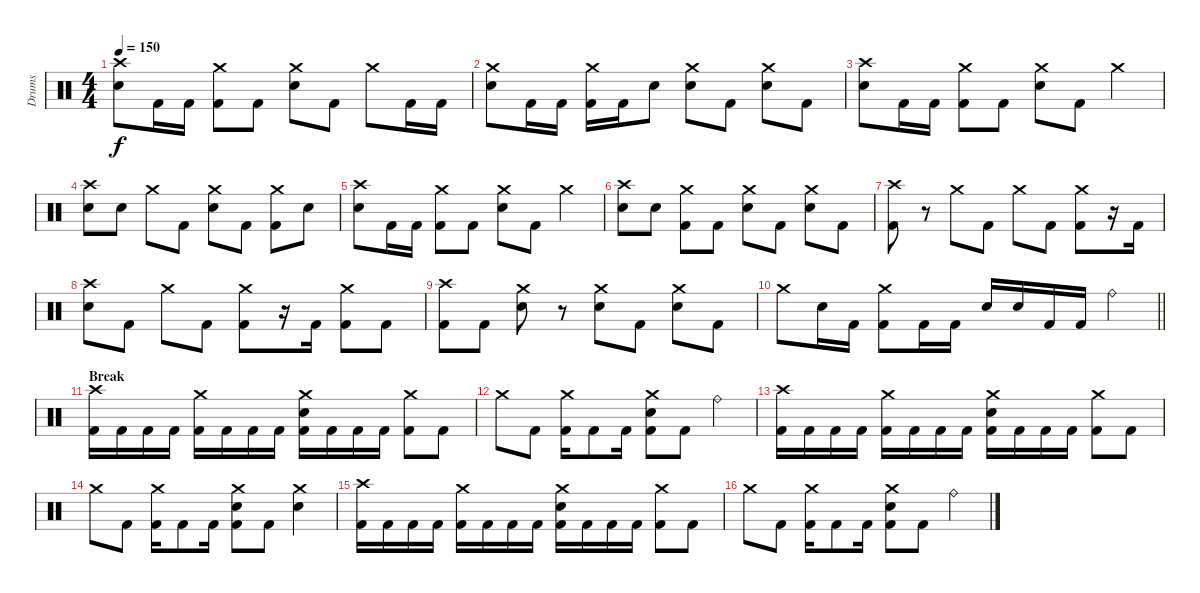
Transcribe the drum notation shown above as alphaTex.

\track ("Drums" "Drums") {instrument percussion}
\staff {score}
\articulation defaults
\ts (4 4)
\tempo 150
\clef neutral
\ks c
("Crash high (hit)" "Snare (hit) 2").8{dy f} "Kick (hit) 2".16 "Kick (hit) 2".16 ("Crash medium (hit)" "Kick (hit) 2").8 "Kick (hit) 2".8 ("Crash medium (hit)" "Snare (hit) 2").8 "Kick (hit) 2".8 "Crash medium (hit)".8 "Kick (hit) 2".16 "Kick (hit) 2".16 |
("Crash medium (hit)" "Snare (hit) 2").8 "Kick (hit) 2".16 "Kick (hit) 2".16 ("Crash medium (hit)" "Kick (hit) 2").16 "Kick (hit) 2".16 "Snare (hit) 2".8 ("Crash medium (hit)" "Snare (hit) 2").8 "Kick (hit) 2".8 ("Crash medium (hit)" "Snare (hit) 2").8 "Kick (hit) 2".8 |
("Crash high (hit)" "Snare (hit) 2").8 "Kick (hit) 2".16 "Kick (hit) 2".16 ("Crash medium (hit)" "Kick (hit) 2").8 "Kick (hit) 2".8 ("Crash medium (hit)" "Snare (hit) 2").8 "Kick (hit) 2".8 "Crash medium (hit)".4 |
("Crash high (hit)" "Snare (hit) 2").8 "Snare (hit) 2".8 "Crash medium (hit)".8 "Kick (hit) 2".8 ("Crash medium (hit)" "Snare (hit) 2").8 "Kick (hit) 2".8 ("Crash medium (hit)" "Kick (hit) 2").8 "Snare (hit) 2".8 |
("Crash high (hit)" "Snare (hit) 2").8 "Kick (hit) 2".16 "Kick (hit) 2".16 ("Crash medium (hit)" "Kick (hit) 2").8 "Kick (hit) 2".8 ("Crash medium (hit)" "Snare (hit) 2").8 "Kick (hit) 2".8 "Crash medium (hit)".4 |
("Crash high (hit)" "Snare (hit) 2").8 "Snare (hit) 2".8 ("Crash medium (hit)" "Kick (hit) 2").8 "Kick (hit) 2".8 ("Crash medium (hit)" "Snare (hit) 2").8 "Kick (hit) 2".8 ("Crash medium (hit)" "Snare (hit) 2").8 "Kick (hit) 2".8 |
("Crash high (hit)" "Kick (hit) 2").8 r.8 "Crash medium (hit)".8 "Kick (hit) 2".8 "Crash medium (hit)".8 "Kick (hit) 2".8 ("Crash medium (hit)" "Kick (hit) 2").8 r.16 "Kick (hit) 2".16 |
("Crash high (hit)" "Snare (hit) 2").8 "Kick (hit) 2".8 "Crash medium (hit)".8 "Kick (hit) 2".8 ("Crash medium (hit)" "Kick (hit) 2").8 r.16 "Kick (hit) 2".16 ("Crash medium (hit)" "Kick (hit) 2").8 "Kick (hit) 2".8 |
("Crash high (hit)" "Kick (hit) 2").8 "Kick (hit) 2".8 ("Crash medium (hit)" "Snare (hit) 2").8 r.8 ("Crash medium (hit)" "Snare (hit) 2").8 "Kick (hit) 2".8 ("Crash medium (hit)" "Snare (hit) 2").8 "Kick (hit) 2".8 |
\barLineRight lightlight "Crash medium (hit)".8 "Snare (hit) 2".16 "Kick (hit) 2".16
("Crash medium (hit)" "Kick (hit) 2").8 "Kick (hit) 2".16 "Kick (hit) 2".16 "Snare (hit) 2".16 "Snare (hit) 2".16 "Kick (hit) 2".16 "Kick (hit) 2".16 "Ride (bell)".4 |
\section ("" "Break")
("Crash high (hit)" "Kick (hit) 2").16 "Kick (hit) 2".16 "Kick (hit) 2".16 "Kick (hit) 2".16 ("Crash medium (hit)" "Kick (hit) 2").16 "Kick (hit) 2".16 "Kick (hit) 2".16 "Kick (hit) 2".16 ("Crash medium (hit)" "Snare (hit) 2" "Kick (hit) 2").16 "Kick (hit) 2".16 "Kick (hit) 2".16 "Kick (hit) 2".16 ("Crash medium (hit)" "Kick (hit) 2").8 "Kick (hit) 2".8 |
"Crash medium (hit)".8 "Kick (hit) 2".8 ("Crash medium (hit)" "Kick (hit) 2").16 "Kick (hit) 2".8 "Kick (hit) 2".16 ("Crash medium (hit)" "Snare (hit) 2" "Kick (hit) 2").8 "Kick (hit) 2".8 "Ride (bell)".4 |
("Crash high (hit)" "Kick (hit) 2").16 "Kick (hit) 2".16 "Kick (hit) 2".16 "Kick (hit) 2".16 ("Crash medium (hit)" "Kick (hit) 2").16 "Kick (hit) 2".16 "Kick (hit) 2".16 "Kick (hit) 2".16 ("Crash medium (hit)" "Snare (hit) 2" "Kick (hit) 2").16 "Kick (hit) 2".16 "Kick (hit) 2".16 "Kick (hit) 2".16 ("Crash medium (hit)" "Kick (hit) 2").8 "Kick (hit) 2".8 |
"Crash medium (hit)".8 "Kick (hit) 2".8 ("Crash medium (hit)" "Kick (hit) 2").16 "Kick (hit) 2".8 "Kick (hit) 2".16 ("Crash medium (hit)" "Snare (hit) 2" "Kick (hit) 2").8 "Kick (hit) 2".8 ("Crash medium (hit)" "Snare (hit) 2").4 |
("Crash high (hit)" "Kick (hit) 2").16 "Kick (hit) 2".16 "Kick (hit) 2".16 "Kick (hit) 2".16 ("Crash medium (hit)" "Kick (hit) 2").16 "Kick (hit) 2".16 "Kick (hit) 2".16 "Kick (hit) 2".16 ("Crash medium (hit)" "Snare (hit) 2" "Kick (hit) 2").16 "Kick (hit) 2".16 "Kick (hit) 2".16 "Kick (hit) 2".16 ("Crash medium (hit)" "Kick (hit) 2").8 "Kick (hit) 2".8 |
"Crash medium (hit)".8 "Kick (hit) 2".8 ("Crash medium (hit)" "Kick (hit) 2").16 "Kick (hit) 2".8 "Kick (hit) 2".16 ("Crash medium (hit)" "Snare (hit) 2" "Kick (hit) 2").8 "Kick (hit) 2".8 "Ride (bell)".4
